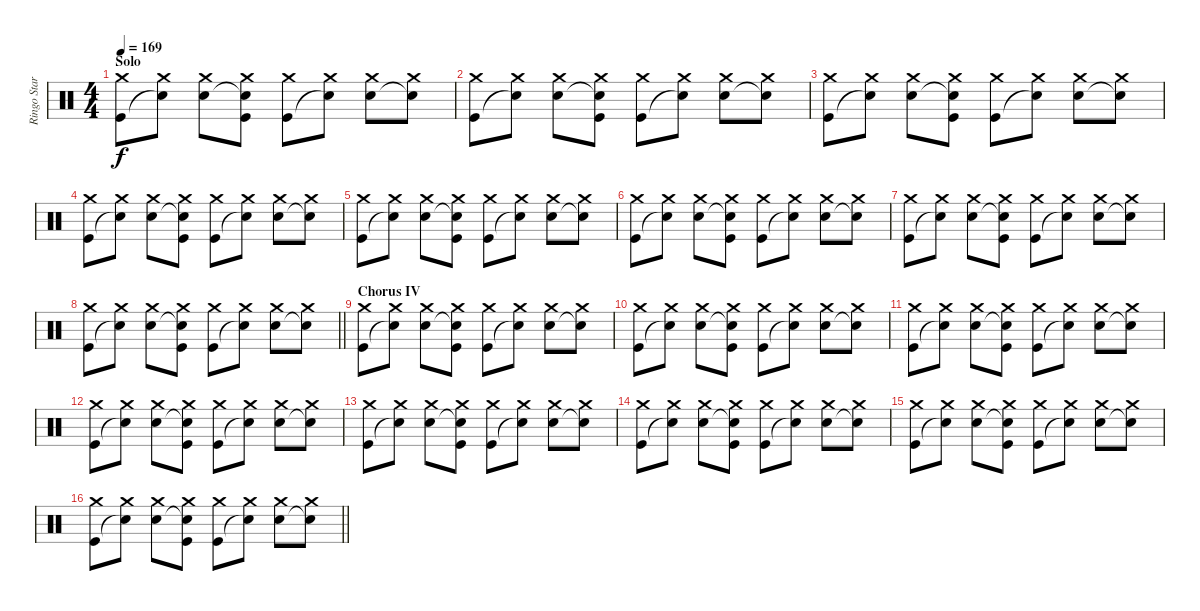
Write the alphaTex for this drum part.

\track ("Ringo Starr" "Ringo Star") {instrument percussion}
\staff {score}
\articulation defaults
\ts (4 4)
\section ("" "Solo")
\tempo 169
\clef neutral
\ks c
("Crash medium (hit)" "Kick (hit)").8{dy f} ("Crash medium (hit)" "Snare (hit)"{t}).8 ("Crash medium (hit)" "Snare (hit) 2").8 ("Crash medium (hit)" "Snare (hit)"{t} "Kick (hit)").8 ("Crash medium (hit)" "Kick (hit)").8 ("Crash medium (hit)" "Snare (hit)"{t}).8 ("Crash medium (hit)" "Snare (hit) 2").8 ("Crash medium (hit)" "Snare (hit)"{t}).8 |
("Crash medium (hit)" "Kick (hit)").8 ("Crash medium (hit)" "Snare (hit)"{t}).8 ("Crash medium (hit)" "Snare (hit) 2").8 ("Crash medium (hit)" "Snare (hit)"{t} "Kick (hit)").8 ("Crash medium (hit)" "Kick (hit)").8 ("Crash medium (hit)" "Snare (hit)"{t}).8 ("Crash medium (hit)" "Snare (hit) 2").8 ("Crash medium (hit)" "Snare (hit)"{t}).8 |
("Crash medium (hit)" "Kick (hit)").8 ("Crash medium (hit)" "Snare (hit)"{t}).8 ("Crash medium (hit)" "Snare (hit) 2").8 ("Crash medium (hit)" "Snare (hit)"{t} "Kick (hit)").8 ("Crash medium (hit)" "Kick (hit)").8 ("Crash medium (hit)" "Snare (hit)"{t}).8 ("Crash medium (hit)" "Snare (hit) 2").8 ("Crash medium (hit)" "Snare (hit)"{t}).8 |
("Crash medium (hit)" "Kick (hit)").8 ("Crash medium (hit)" "Snare (hit)"{t}).8 ("Crash medium (hit)" "Snare (hit) 2").8 ("Crash medium (hit)" "Snare (hit)"{t} "Kick (hit)").8 ("Crash medium (hit)" "Kick (hit)").8 ("Crash medium (hit)" "Snare (hit)"{t}).8 ("Crash medium (hit)" "Snare (hit) 2").8 ("Crash medium (hit)" "Snare (hit)"{t}).8 |
("Crash medium (hit)" "Kick (hit)").8 ("Crash medium (hit)" "Snare (hit)"{t}).8 ("Crash medium (hit)" "Snare (hit) 2").8 ("Crash medium (hit)" "Snare (hit)"{t} "Kick (hit)").8 ("Crash medium (hit)" "Kick (hit)").8 ("Crash medium (hit)" "Snare (hit)"{t}).8 ("Crash medium (hit)" "Snare (hit) 2").8 ("Crash medium (hit)" "Snare (hit)"{t}).8 |
("Crash medium (hit)" "Kick (hit)").8 ("Crash medium (hit)" "Snare (hit)"{t}).8 ("Crash medium (hit)" "Snare (hit) 2").8 ("Crash medium (hit)" "Snare (hit)"{t} "Kick (hit)").8 ("Crash medium (hit)" "Kick (hit)").8 ("Crash medium (hit)" "Snare (hit)"{t}).8 ("Crash medium (hit)" "Snare (hit) 2").8 ("Crash medium (hit)" "Snare (hit)"{t}).8 |
("Crash medium (hit)" "Kick (hit)").8 ("Crash medium (hit)" "Snare (hit)"{t}).8 ("Crash medium (hit)" "Snare (hit) 2").8 ("Crash medium (hit)" "Snare (hit)"{t} "Kick (hit)").8 ("Crash medium (hit)" "Kick (hit)").8 ("Crash medium (hit)" "Snare (hit)"{t}).8 ("Crash medium (hit)" "Snare (hit) 2").8 ("Crash medium (hit)" "Snare (hit)"{t}).8 |
\barLineRight lightlight
("Crash medium (hit)" "Kick (hit)").8 ("Crash medium (hit)" "Snare (hit)"{t}).8 ("Crash medium (hit)" "Snare (hit) 2").8 ("Crash medium (hit)" "Snare (hit)"{t} "Kick (hit)").8 ("Crash medium (hit)" "Kick (hit)").8 ("Crash medium (hit)" "Snare (hit)"{t}).8 ("Crash medium (hit)" "Snare (hit) 2").8 ("Crash medium (hit)" "Snare (hit)"{t}).8 |
\section ("" "Chorus IV")
("Crash medium (hit)" "Kick (hit)").8 ("Crash medium (hit)" "Snare (hit)"{t}).8 ("Crash medium (hit)" "Snare (hit) 2").8 ("Crash medium (hit)" "Snare (hit)"{t} "Kick (hit)").8 ("Crash medium (hit)" "Kick (hit)").8 ("Crash medium (hit)" "Snare (hit)"{t}).8 ("Crash medium (hit)" "Snare (hit) 2").8 ("Crash medium (hit)" "Snare (hit)"{t}).8 |
("Crash medium (hit)" "Kick (hit)").8 ("Crash medium (hit)" "Snare (hit)"{t}).8 ("Crash medium (hit)" "Snare (hit) 2").8 ("Crash medium (hit)" "Snare (hit)"{t} "Kick (hit)").8 ("Crash medium (hit)" "Kick (hit)").8 ("Crash medium (hit)" "Snare (hit)"{t}).8 ("Crash medium (hit)" "Snare (hit) 2").8 ("Crash medium (hit)" "Snare (hit)"{t}).8 |
("Crash medium (hit)" "Kick (hit)").8 ("Crash medium (hit)" "Snare (hit)"{t}).8 ("Crash medium (hit)" "Snare (hit) 2").8 ("Crash medium (hit)" "Snare (hit)"{t} "Kick (hit)").8 ("Crash medium (hit)" "Kick (hit)").8 ("Crash medium (hit)" "Snare (hit)"{t}).8 ("Crash medium (hit)" "Snare (hit) 2").8 ("Crash medium (hit)" "Snare (hit)"{t}).8 |
("Crash medium (hit)" "Kick (hit)").8 ("Crash medium (hit)" "Snare (hit)"{t}).8 ("Crash medium (hit)" "Snare (hit) 2").8 ("Crash medium (hit)" "Snare (hit)"{t} "Kick (hit)").8 ("Crash medium (hit)" "Kick (hit)").8 ("Crash medium (hit)" "Snare (hit)"{t}).8 ("Crash medium (hit)" "Snare (hit) 2").8 ("Crash medium (hit)" "Snare (hit)"{t}).8 |
("Crash medium (hit)" "Kick (hit)").8 ("Crash medium (hit)" "Snare (hit)"{t}).8 ("Crash medium (hit)" "Snare (hit) 2").8 ("Crash medium (hit)" "Snare (hit)"{t} "Kick (hit)").8 ("Crash medium (hit)" "Kick (hit)").8 ("Crash medium (hit)" "Snare (hit)"{t}).8 ("Crash medium (hit)" "Snare (hit) 2").8 ("Crash medium (hit)" "Snare (hit)"{t}).8 |
("Crash medium (hit)" "Kick (hit)").8 ("Crash medium (hit)" "Snare (hit)"{t}).8 ("Crash medium (hit)" "Snare (hit) 2").8 ("Crash medium (hit)" "Snare (hit)"{t} "Kick (hit)").8 ("Crash medium (hit)" "Kick (hit)").8 ("Crash medium (hit)" "Snare (hit)"{t}).8 ("Crash medium (hit)" "Snare (hit) 2").8 ("Crash medium (hit)" "Snare (hit)"{t}).8 |
("Crash medium (hit)" "Kick (hit)").8 ("Crash medium (hit)" "Snare (hit)"{t}).8 ("Crash medium (hit)" "Snare (hit) 2").8 ("Crash medium (hit)" "Snare (hit)"{t} "Kick (hit)").8 ("Crash medium (hit)" "Kick (hit)").8 ("Crash medium (hit)" "Snare (hit)"{t}).8 ("Crash medium (hit)" "Snare (hit) 2").8 ("Crash medium (hit)" "Snare (hit)"{t}).8 |
\barLineRight lightlight
("Crash medium (hit)" "Kick (hit)").8 ("Crash medium (hit)" "Snare (hit)"{t}).8 ("Crash medium (hit)" "Snare (hit) 2").8 ("Crash medium (hit)" "Snare (hit)"{t} "Kick (hit)").8 ("Crash medium (hit)" "Kick (hit)").8 ("Crash medium (hit)" "Snare (hit)"{t}).8 ("Crash medium (hit)" "Snare (hit) 2").8 ("Crash medium (hit)" "Snare (hit)"{t}).8
